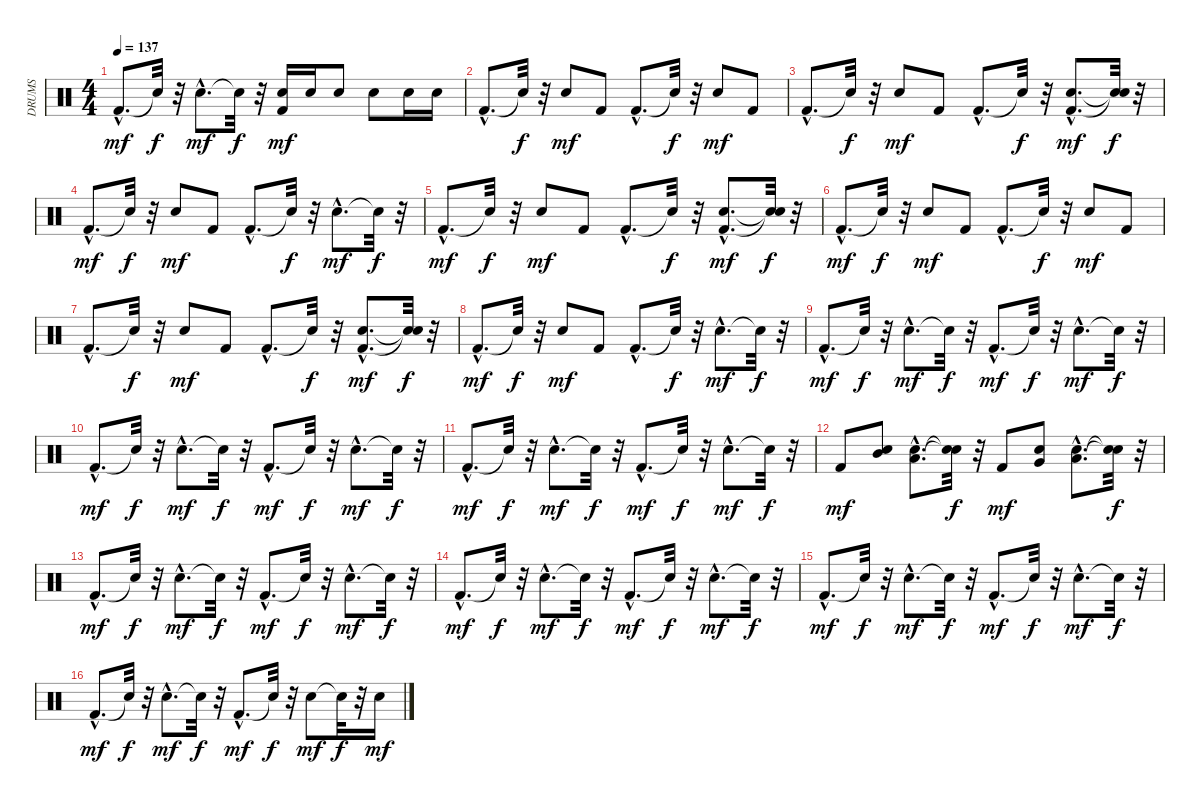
\track ("DRUMS" "DRUMS") {instrument percussion}
\staff {score}
\articulation defaults
\ts (4 4)
\tempo 137
\clef neutral
\ks c "Kick (hit) 2"{hac}.8{d dy mf} "Snare (hit)"{t}.32{dy f}
r.32 "Snare (hit) 2"{hac}.8{d dy mf} "Snare (hit)"{t}.32{dy f} r.32 ("Kick (hit) 2" "Snare (hit) 2").16{dy mf} "Snare (hit) 2".16 "Snare (hit) 2".8 "Snare (hit) 2".8 "Snare (hit) 2".16 "Snare (hit) 2".16 |
"Kick (hit) 2"{hac}.8{d} "Snare (hit)"{t}.32{dy f} r.32 "Snare (hit) 2".8{dy mf} "Kick (hit) 2".8 "Kick (hit) 2"{hac}.8{d} "Snare (hit)"{t}.32{dy f} r.32 "Snare (hit) 2".8{dy mf} "Kick (hit) 2".8 |
"Kick (hit) 2"{hac}.8{d} "Snare (hit)"{t}.32{dy f} r.32 "Snare (hit) 2".8{dy mf} "Kick (hit) 2".8 "Kick (hit) 2"{hac}.8{d} "Snare (hit)"{t}.32{dy f} r.32 ("Snare (hit) 2"{hac} "Kick (hit) 2"{hac}).8{d dy mf} ("Snare (hit)"{t} "Snare (hit)"{t}).32{dy f} r.32 |
"Kick (hit) 2"{hac}.8{d dy mf} "Snare (hit)"{t}.32{dy f} r.32 "Snare (hit) 2".8{dy mf} "Kick (hit) 2".8 "Kick (hit) 2"{hac}.8{d} "Snare (hit)"{t}.32{dy f} r.32 "Snare (hit) 2"{hac}.8{d dy mf} "Snare (hit)"{t}.32{dy f} r.32 |
"Kick (hit) 2"{hac}.8{d dy mf} "Snare (hit)"{t}.32{dy f} r.32 "Snare (hit) 2".8{dy mf} "Kick (hit) 2".8 "Kick (hit) 2"{hac}.8{d} "Snare (hit)"{t}.32{dy f} r.32 ("Kick (hit) 2"{hac} "Snare (hit) 2"{hac}).8{d dy mf} ("Snare (hit)"{t} "Snare (hit)"{t}).32{dy f} r.32 |
"Kick (hit) 2"{hac}.8{d dy mf} "Snare (hit)"{t}.32{dy f} r.32 "Snare (hit) 2".8{dy mf} "Kick (hit) 2".8 "Kick (hit) 2"{hac}.8{d} "Snare (hit)"{t}.32{dy f} r.32 "Snare (hit) 2".8{dy mf} "Kick (hit) 2".8 |
"Kick (hit) 2"{hac}.8{d} "Snare (hit)"{t}.32{dy f} r.32 "Snare (hit) 2".8{dy mf} "Kick (hit) 2".8 "Kick (hit) 2"{hac}.8{d} "Snare (hit)"{t}.32{dy f} r.32 ("Kick (hit) 2"{hac} "Snare (hit) 2"{hac}).8{d dy mf} ("Snare (hit)"{t} "Snare (hit)"{t}).32{dy f} r.32 |
"Kick (hit) 2"{hac}.8{d dy mf} "Snare (hit)"{t}.32{dy f} r.32 "Snare (hit) 2".8{dy mf} "Kick (hit) 2".8 "Kick (hit) 2"{hac}.8{d} "Snare (hit)"{t}.32{dy f} r.32 "Snare (hit) 2"{hac}.8{d dy mf} "Snare (hit)"{t}.32{dy f} r.32 |
"Kick (hit) 2"{hac}.8{d dy mf} "Snare (hit)"{t}.32{dy f} r.32 "Snare (hit) 2"{hac}.8{d dy mf} "Snare (hit)"{t}.32{dy f} r.32 "Kick (hit) 2"{hac}.8{d dy mf} "Snare (hit)"{t}.32{dy f} r.32 "Snare (hit) 2"{hac}.8{d dy mf} "Snare (hit)"{t}.32{dy f} r.32 |
"Kick (hit) 2"{hac}.8{d dy mf} "Snare (hit)"{t}.32{dy f} r.32 "Snare (hit) 2"{hac}.8{d dy mf} "Snare (hit)"{t}.32{dy f} r.32 "Kick (hit) 2"{hac}.8{d dy mf} "Snare (hit)"{t}.32{dy f} r.32 "Snare (hit) 2"{hac}.8{d dy mf} "Snare (hit)"{t}.32{dy f} r.32 |
"Kick (hit) 2"{hac}.8{d dy mf} "Snare (hit)"{t}.32{dy f} r.32 "Snare (hit) 2"{hac}.8{d dy mf} "Snare (hit)"{t}.32{dy f} r.32 "Kick (hit) 2"{hac}.8{d dy mf} "Snare (hit)"{t}.32{dy f} r.32 "Snare (hit) 2"{hac}.8{d dy mf} "Snare (hit)"{t}.32{dy f} r.32 |
"Kick (hit) 2".8{dy mf} ("Mid Tom (hit)" "Snare (hit) 2").8 ("Low Tom (hit)"{hac} "Snare (hit) 2"{hac}).8{d} ("Snare (hit)"{t} "Snare (hit)"{t}).32{dy f} r.32 "Kick (hit) 2".8{dy mf} ("Very Low Tom (hit)" "Snare (hit) 2").8 ("Low Floor Tom (hit)"{hac} "Snare (hit) 2"{hac}).8{d} ("Snare (hit)"{t} "Snare (hit)"{t}).32{dy f} r.32 |
"Kick (hit) 2"{hac}.8{d dy mf} "Snare (hit)"{t}.32{dy f} r.32 "Snare (hit) 2"{hac}.8{d dy mf} "Snare (hit)"{t}.32{dy f} r.32 "Kick (hit) 2"{hac}.8{d dy mf} "Snare (hit)"{t}.32{dy f} r.32 "Snare (hit) 2"{hac}.8{d dy mf} "Snare (hit)"{t}.32{dy f} r.32 |
"Kick (hit) 2"{hac}.8{d dy mf} "Snare (hit)"{t}.32{dy f} r.32 "Snare (hit) 2"{hac}.8{d dy mf} "Snare (hit)"{t}.32{dy f} r.32 "Kick (hit) 2"{hac}.8{d dy mf} "Snare (hit)"{t}.32{dy f} r.32 "Snare (hit) 2"{hac}.8{d dy mf} "Snare (hit)"{t}.32{dy f} r.32 |
"Kick (hit) 2"{hac}.8{d dy mf} "Snare (hit)"{t}.32{dy f} r.32 "Snare (hit) 2"{hac}.8{d dy mf} "Snare (hit)"{t}.32{dy f} r.32 "Kick (hit) 2"{hac}.8{d dy mf} "Snare (hit)"{t}.32{dy f} r.32 "Snare (hit) 2"{hac}.8{d dy mf} "Snare (hit)"{t}.32{dy f} r.32 |
"Kick (hit) 2"{hac}.8{d dy mf} "Snare (hit)"{t}.32{dy f} r.32 "Snare (hit) 2"{hac}.8{d dy mf} "Snare (hit)"{t}.32{dy f} r.32 "Kick (hit) 2"{hac}.8{d dy mf} "Snare (hit)"{t}.32{dy f} r.32 "Snare (hit) 2".8{dy mf} "Snare (hit)"{t}.32{dy f} r.32 "Snare (hit) 2".16{dy mf}
